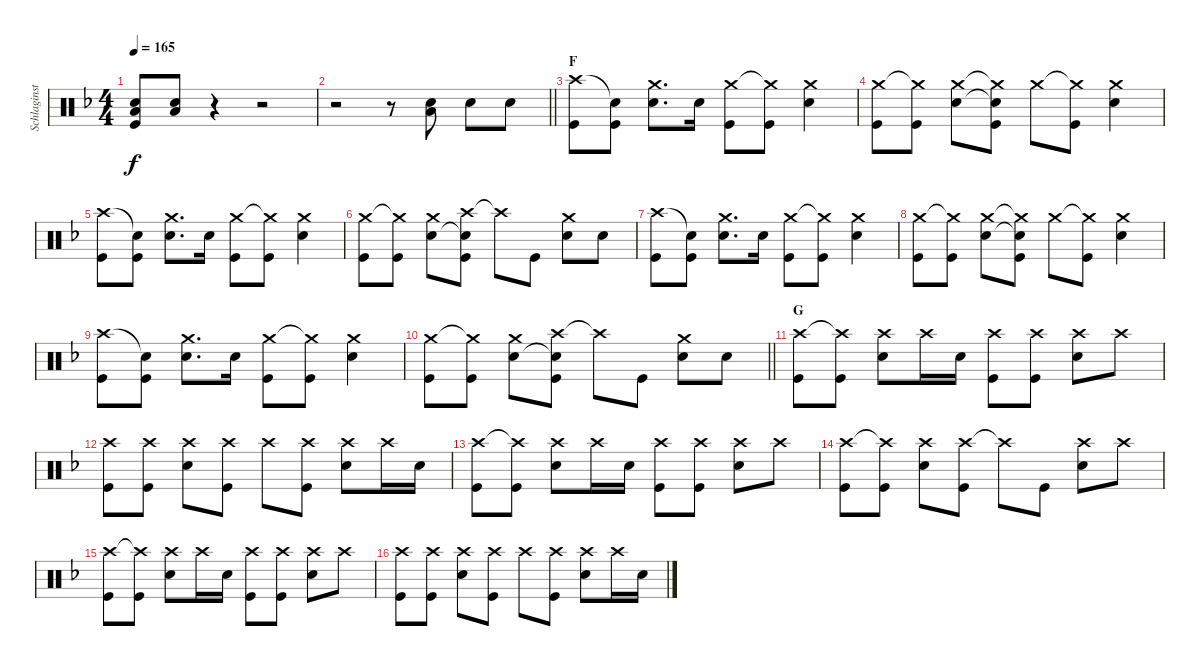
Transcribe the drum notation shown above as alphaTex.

\track ("Schlaginstrumente - Auswahl" "Schlaginst") {instrument percussion}
\staff {score}
\articulation defaults
\ts (4 4)
\tempo 165
\clef neutral
\ks f
("Low Tom (hit)" "Snare (hit) 2" "Kick (hit)").8{dy f} ("Low Tom (hit)" "Snare (hit) 2").8 r.4 r.2 |
\barLineRight lightlight
r.2 r.8 ("Low Tom (hit)" "Snare (hit) 2").8 "Snare (hit) 2".8 "Snare (hit) 2".8 |
\section ("" "F")
("Crash high (hit)" "Kick (hit)").8 ("Snare (hit)"{t} "Kick (hit)").8 ("Crash medium (hit)" "Snare (hit) 2").8{d} "Snare (hit) 2".16 ("Crash medium (hit)" "Kick (hit)").8 ("Crash medium (hit)"{t} "Kick (hit)").8 ("Crash medium (hit)" "Snare (hit) 2").4 |
("Crash medium (hit)" "Kick (hit)").8 ("Crash medium (hit)"{t} "Kick (hit)").8 ("Crash medium (hit)" "Snare (hit) 2").8 ("Crash medium (hit)"{t} "Snare (hit) 2"{t} "Kick (hit)").8 "Crash medium (hit)".8 ("Crash medium (hit)"{t} "Kick (hit)").8 ("Crash medium (hit)" "Snare (hit) 2").4 |
("Crash high (hit)" "Kick (hit)").8 ("Snare (hit)"{t} "Kick (hit)").8 ("Crash medium (hit)" "Snare (hit) 2").8{d} "Snare (hit) 2".16 ("Crash medium (hit)" "Kick (hit)").8 ("Crash medium (hit)"{t} "Kick (hit)").8 ("Crash medium (hit)" "Snare (hit) 2").4 |
("Crash medium (hit)" "Kick (hit)").8 ("Crash medium (hit)"{t} "Kick (hit)").8 ("Crash medium (hit)" "Snare (hit) 2").8 ("Crash high (hit)" "Snare (hit) 2"{t} "Kick (hit)").8 "Crash high (hit)"{t}.8 "Kick (hit)".8 ("Crash medium (hit)" "Snare (hit) 2").8 "Snare (hit) 2".8 |
("Crash high (hit)" "Kick (hit)").8 ("Snare (hit)"{t} "Kick (hit)").8 ("Crash medium (hit)" "Snare (hit) 2").8{d} "Snare (hit) 2".16 ("Crash medium (hit)" "Kick (hit)").8 ("Crash medium (hit)"{t} "Kick (hit)").8 ("Crash medium (hit)" "Snare (hit) 2").4 |
("Crash medium (hit)" "Kick (hit)").8 ("Crash medium (hit)"{t} "Kick (hit)").8 ("Crash medium (hit)" "Snare (hit) 2").8 ("Crash medium (hit)"{t} "Snare (hit) 2"{t} "Kick (hit)").8 "Crash medium (hit)".8 ("Crash medium (hit)"{t} "Kick (hit)").8 ("Crash medium (hit)" "Snare (hit) 2").4 |
("Crash high (hit)" "Kick (hit)").8 ("Snare (hit)"{t} "Kick (hit)").8 ("Crash medium (hit)" "Snare (hit) 2").8{d} "Snare (hit) 2".16 ("Crash medium (hit)" "Kick (hit)").8 ("Crash medium (hit)"{t} "Kick (hit)").8 ("Crash medium (hit)" "Snare (hit) 2").4 |
\barLineRight lightlight
("Crash medium (hit)" "Kick (hit)").8 ("Crash medium (hit)"{t} "Kick (hit)").8 ("Crash medium (hit)" "Snare (hit) 2").8 ("Crash high (hit)" "Snare (hit) 2"{t} "Kick (hit)").8 "Crash high (hit)"{t}.8 "Kick (hit)".8 ("Crash medium (hit)" "Snare (hit) 2").8 "Snare (hit) 2".8 |
\section ("" "G")
("Crash high (hit)" "Kick (hit)").8 ("Crash high (hit)"{t} "Kick (hit)").8 ("Crash high (hit)" "Snare (hit) 2").8 "Crash high (hit)".16 "Snare (hit) 2".16 ("Crash high (hit)" "Kick (hit)").8 ("Crash high (hit)" "Kick (hit)").8 ("Crash high (hit)" "Snare (hit) 2").8 "Crash high (hit)".8 |
("Crash high (hit)" "Kick (hit)").8 ("Crash high (hit)" "Kick (hit)").8 ("Crash high (hit)" "Snare (hit) 2").8 ("Crash high (hit)" "Kick (hit)").8 "Crash high (hit)".8 ("Crash high (hit)" "Kick (hit)").8 ("Crash high (hit)" "Snare (hit) 2").8 "Crash high (hit)".16 "Snare (hit) 2".16 |
("Crash high (hit)" "Kick (hit)").8 ("Crash high (hit)"{t} "Kick (hit)").8 ("Crash high (hit)" "Snare (hit) 2").8 "Crash high (hit)".16 "Snare (hit) 2".16 ("Crash high (hit)" "Kick (hit)").8 ("Crash high (hit)" "Kick (hit)").8 ("Crash high (hit)" "Snare (hit) 2").8 "Crash high (hit)".8 |
("Crash high (hit)" "Kick (hit)").8 ("Crash high (hit)"{t} "Kick (hit)").8 ("Crash high (hit)" "Snare (hit) 2").8 ("Crash high (hit)" "Kick (hit)").8 "Crash high (hit)"{t}.8 "Kick (hit)".8 ("Crash high (hit)" "Snare (hit) 2").8 "Crash high (hit)".8 |
("Crash high (hit)" "Kick (hit)").8 ("Crash high (hit)"{t} "Kick (hit)").8 ("Crash high (hit)" "Snare (hit) 2").8 "Crash high (hit)".16 "Snare (hit) 2".16 ("Crash high (hit)" "Kick (hit)").8 ("Crash high (hit)" "Kick (hit)").8 ("Crash high (hit)" "Snare (hit) 2").8 "Crash high (hit)".8 |
("Crash high (hit)" "Kick (hit)").8 ("Crash high (hit)" "Kick (hit)").8 ("Crash high (hit)" "Snare (hit) 2").8 ("Crash high (hit)" "Kick (hit)").8 "Crash high (hit)".8 ("Crash high (hit)" "Kick (hit)").8 ("Crash high (hit)" "Snare (hit) 2").8 "Crash high (hit)".16 "Snare (hit) 2".16
